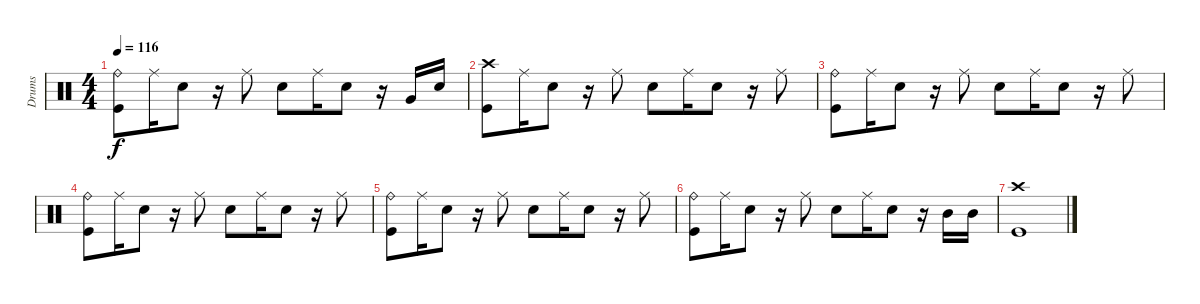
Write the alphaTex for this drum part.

\track ("Drums" "Drums") {instrument percussion}
\staff {score}
\articulation defaults
\ts (4 4)
\tempo 116
\clef neutral
\ks c
("Ride (bell)" "Kick (hit)").8{dy f} "Ride (middle)".16 "Snare (hit) 2".8 r.16 "Ride (middle)".8 "Snare (hit) 2".8 "Ride (middle)".16 "Snare (hit) 2".8 r.16 "Very Low Tom (hit)".16 "Snare (hit) 2".16 |
("Crash high (hit)" "Kick (hit)").8 "Ride (middle)".16 "Snare (hit) 2".8 r.16 "Ride (middle)".8 "Snare (hit) 2".8 "Ride (middle)".16 "Snare (hit) 2".8 r.16 "Ride (middle)".8 |
("Ride (bell)" "Kick (hit)").8 "Ride (middle)".16 "Snare (hit) 2".8 r.16 "Ride (middle)".8 "Snare (hit) 2".8 "Ride (middle)".16 "Snare (hit) 2".8 r.16 "Ride (middle)".8 |
("Ride (bell)" "Kick (hit)").8 "Ride (middle)".16 "Snare (hit) 2".8 r.16 "Ride (middle)".8 "Snare (hit) 2".8 "Ride (middle)".16 "Snare (hit) 2".8 r.16 "Ride (middle)".8 |
("Ride (bell)" "Kick (hit)").8 "Ride (middle)".16 "Snare (hit) 2".8 r.16 "Ride (middle)".8 "Snare (hit) 2".8 "Ride (middle)".16 "Snare (hit) 2".8 r.16 "Ride (middle)".8 |
("Ride (bell)" "Kick (hit)").8 "Ride (middle)".16 "Snare (hit) 2".8 r.16 "Ride (middle)".8 "Snare (hit) 2".8 "Ride (middle)".16 "Snare (hit) 2".8 r.16 "Mid Tom (hit)".16 "Mid Tom (hit)".16 |
("Crash high (hit)" "Kick (hit)").1
